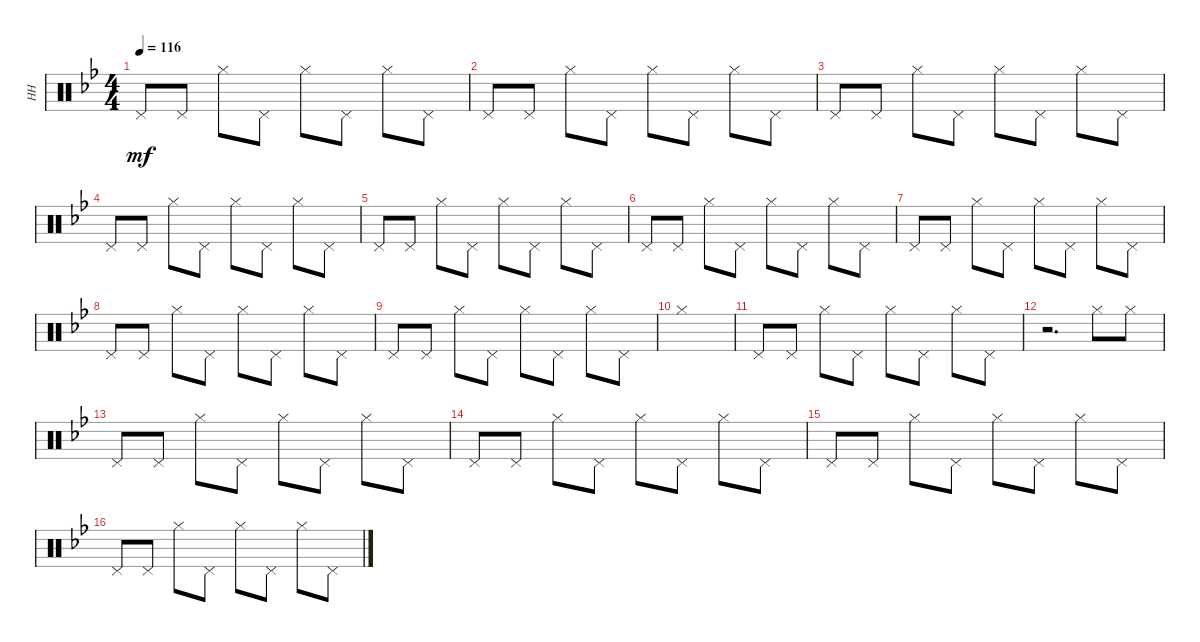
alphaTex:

\track ("HH" "HH") {instrument percussion}
\staff {score}
\articulation defaults
\ts (4 4)
\tempo 116
\clef neutral
\ks bb "Pedal Hi-Hat (hit)".8{dy mf} "Pedal Hi-Hat (hit)".8 "Hi-Hat (closed)".8 "Pedal Hi-Hat (hit)".8 "Hi-Hat (closed)".8 "Pedal Hi-Hat (hit)".8 "Hi-Hat (closed)".8 "Pedal Hi-Hat (hit)".8
|
"Pedal Hi-Hat (hit)".8 "Pedal Hi-Hat (hit)".8 "Hi-Hat (closed)".8 "Pedal Hi-Hat (hit)".8 "Hi-Hat (closed)".8 "Pedal Hi-Hat (hit)".8 "Hi-Hat (closed)".8 "Pedal Hi-Hat (hit)".8 |
"Pedal Hi-Hat (hit)".8 "Pedal Hi-Hat (hit)".8 "Hi-Hat (closed)".8 "Pedal Hi-Hat (hit)".8 "Hi-Hat (closed)".8 "Pedal Hi-Hat (hit)".8 "Hi-Hat (closed)".8 "Pedal Hi-Hat (hit)".8 |
"Pedal Hi-Hat (hit)".8 "Pedal Hi-Hat (hit)".8 "Hi-Hat (closed)".8 "Pedal Hi-Hat (hit)".8 "Hi-Hat (closed)".8 "Pedal Hi-Hat (hit)".8 "Hi-Hat (closed)".8 "Pedal Hi-Hat (hit)".8 |
"Pedal Hi-Hat (hit)".8 "Pedal Hi-Hat (hit)".8 "Hi-Hat (closed)".8 "Pedal Hi-Hat (hit)".8 "Hi-Hat (closed)".8 "Pedal Hi-Hat (hit)".8 "Hi-Hat (closed)".8 "Pedal Hi-Hat (hit)".8 |
"Pedal Hi-Hat (hit)".8 "Pedal Hi-Hat (hit)".8 "Hi-Hat (closed)".8 "Pedal Hi-Hat (hit)".8 "Hi-Hat (closed)".8 "Pedal Hi-Hat (hit)".8 "Hi-Hat (closed)".8 "Pedal Hi-Hat (hit)".8 |
"Pedal Hi-Hat (hit)".8 "Pedal Hi-Hat (hit)".8 "Hi-Hat (closed)".8 "Pedal Hi-Hat (hit)".8 "Hi-Hat (closed)".8 "Pedal Hi-Hat (hit)".8 "Hi-Hat (closed)".8 "Pedal Hi-Hat (hit)".8 |
"Pedal Hi-Hat (hit)".8 "Pedal Hi-Hat (hit)".8 "Hi-Hat (closed)".8 "Pedal Hi-Hat (hit)".8 "Hi-Hat (closed)".8 "Pedal Hi-Hat (hit)".8 "Hi-Hat (closed)".8 "Pedal Hi-Hat (hit)".8 |
"Pedal Hi-Hat (hit)".8 "Pedal Hi-Hat (hit)".8 "Hi-Hat (closed)".8 "Pedal Hi-Hat (hit)".8 "Hi-Hat (closed)".8 "Pedal Hi-Hat (hit)".8 "Hi-Hat (closed)".8 "Pedal Hi-Hat (hit)".8 |
"Hi-Hat (closed)".1 |
"Pedal Hi-Hat (hit)".8 "Pedal Hi-Hat (hit)".8 "Hi-Hat (closed)".8 "Pedal Hi-Hat (hit)".8 "Hi-Hat (closed)".8 "Pedal Hi-Hat (hit)".8 "Hi-Hat (closed)".8 "Pedal Hi-Hat (hit)".8 |
r.2{d} "Hi-Hat (closed)".8 "Hi-Hat (closed)".8 |
"Pedal Hi-Hat (hit)".8 "Pedal Hi-Hat (hit)".8 "Hi-Hat (closed)".8 "Pedal Hi-Hat (hit)".8 "Hi-Hat (closed)".8 "Pedal Hi-Hat (hit)".8 "Hi-Hat (closed)".8 "Pedal Hi-Hat (hit)".8 |
"Pedal Hi-Hat (hit)".8 "Pedal Hi-Hat (hit)".8 "Hi-Hat (closed)".8 "Pedal Hi-Hat (hit)".8 "Hi-Hat (closed)".8 "Pedal Hi-Hat (hit)".8 "Hi-Hat (closed)".8 "Pedal Hi-Hat (hit)".8 |
"Pedal Hi-Hat (hit)".8 "Pedal Hi-Hat (hit)".8 "Hi-Hat (closed)".8 "Pedal Hi-Hat (hit)".8 "Hi-Hat (closed)".8 "Pedal Hi-Hat (hit)".8 "Hi-Hat (closed)".8 "Pedal Hi-Hat (hit)".8 |
"Pedal Hi-Hat (hit)".8 "Pedal Hi-Hat (hit)".8 "Hi-Hat (closed)".8 "Pedal Hi-Hat (hit)".8 "Hi-Hat (closed)".8 "Pedal Hi-Hat (hit)".8 "Hi-Hat (closed)".8 "Pedal Hi-Hat (hit)".8
